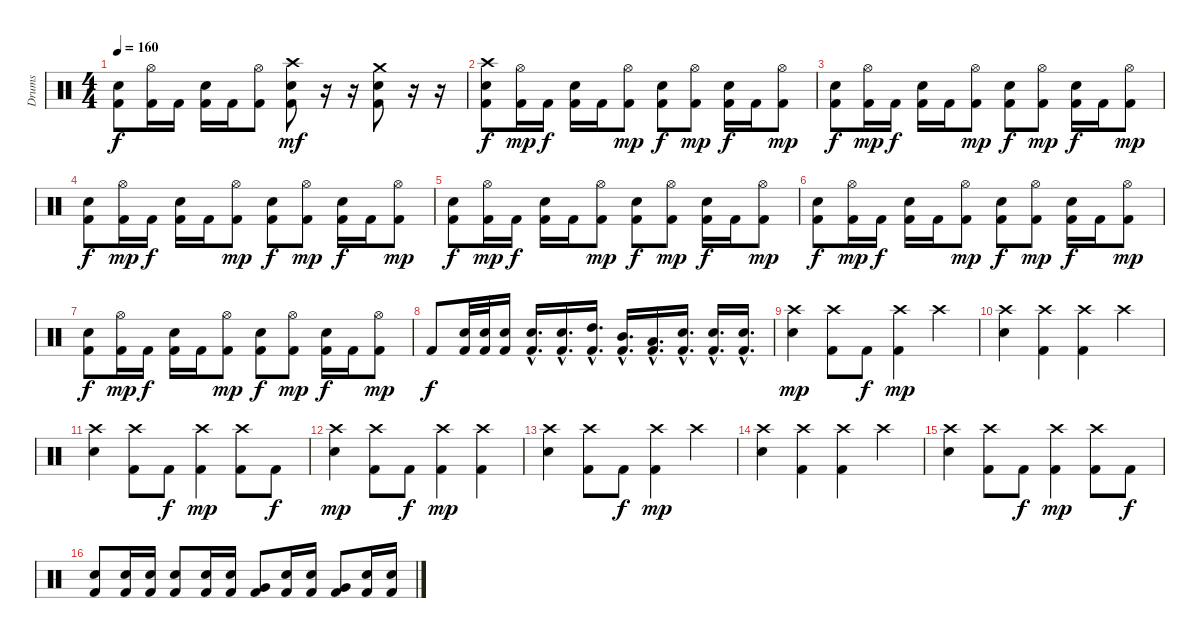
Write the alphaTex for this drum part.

\track ("Drums" "Drums") {instrument percussion}
\staff {score}
\articulation defaults
\ts (4 4)
\tempo 160
\clef neutral
\ks c
("Electric Snare (hit)" "Kick (hit) 2").8{dy f} ("Hi-Hat (open)" "Kick (hit) 2").16 "Kick (hit) 2".16 ("Electric Snare (hit)" "Kick (hit) 2").16 "Kick (hit) 2".16 ("Hi-Hat (open)" "Kick (hit) 2").8 ("Crash high (hit)" "Electric Snare (hit)" "Kick (hit) 2").8{dy mf} r.16 r.16 ("Crash medium (hit)" "Electric Snare (hit)" "Kick (hit) 2").8 r.16 r.16 |
("Crash high (hit)" "Electric Snare (hit)" "Kick (hit) 2").8{dy f} ("Hi-Hat (open)" "Kick (hit) 2").16{dy mp} "Kick (hit) 2".16{dy f} ("Electric Snare (hit)" "Kick (hit) 2").16 "Kick (hit) 2".16 ("Hi-Hat (open)" "Kick (hit) 2").8{dy mp} ("Electric Snare (hit)" "Kick (hit) 2").8{dy f} ("Hi-Hat (open)" "Kick (hit) 2").8{dy mp} ("Electric Snare (hit)" "Kick (hit) 2").16{dy f} "Kick (hit) 2".16 ("Hi-Hat (open)" "Kick (hit) 2").8{dy mp} |
("Electric Snare (hit)" "Kick (hit) 2").8{dy f} ("Hi-Hat (open)" "Kick (hit) 2").16{dy mp} "Kick (hit) 2".16{dy f} ("Electric Snare (hit)" "Kick (hit) 2").16 "Kick (hit) 2".16 ("Hi-Hat (open)" "Kick (hit) 2").8{dy mp} ("Electric Snare (hit)" "Kick (hit) 2").8{dy f} ("Hi-Hat (open)" "Kick (hit) 2").8{dy mp} ("Electric Snare (hit)" "Kick (hit) 2").16{dy f} "Kick (hit) 2".16 ("Hi-Hat (open)" "Kick (hit) 2").8{dy mp} |
("Electric Snare (hit)" "Kick (hit) 2").8{dy f} ("Hi-Hat (open)" "Kick (hit) 2").16{dy mp} "Kick (hit) 2".16{dy f} ("Electric Snare (hit)" "Kick (hit) 2").16 "Kick (hit) 2".16 ("Hi-Hat (open)" "Kick (hit) 2").8{dy mp} ("Electric Snare (hit)" "Kick (hit) 2").8{dy f} ("Hi-Hat (open)" "Kick (hit) 2").8{dy mp} ("Electric Snare (hit)" "Kick (hit) 2").16{dy f} "Kick (hit) 2".16 ("Hi-Hat (open)" "Kick (hit) 2").8{dy mp} |
("Electric Snare (hit)" "Kick (hit) 2").8{dy f} ("Hi-Hat (open)" "Kick (hit) 2").16{dy mp} "Kick (hit) 2".16{dy f} ("Electric Snare (hit)" "Kick (hit) 2").16 "Kick (hit) 2".16 ("Hi-Hat (open)" "Kick (hit) 2").8{dy mp} ("Electric Snare (hit)" "Kick (hit) 2").8{dy f} ("Hi-Hat (open)" "Kick (hit) 2").8{dy mp} ("Electric Snare (hit)" "Kick (hit) 2").16{dy f} "Kick (hit) 2".16 ("Hi-Hat (open)" "Kick (hit) 2").8{dy mp} |
("Electric Snare (hit)" "Kick (hit) 2").8{dy f} ("Hi-Hat (open)" "Kick (hit) 2").16{dy mp} "Kick (hit) 2".16{dy f} ("Electric Snare (hit)" "Kick (hit) 2").16 "Kick (hit) 2".16 ("Hi-Hat (open)" "Kick (hit) 2").8{dy mp} ("Electric Snare (hit)" "Kick (hit) 2").8{dy f} ("Hi-Hat (open)" "Kick (hit) 2").8{dy mp} ("Electric Snare (hit)" "Kick (hit) 2").16{dy f} "Kick (hit) 2".16 ("Hi-Hat (open)" "Kick (hit) 2").8{dy mp} |
("Electric Snare (hit)" "Kick (hit) 2").8{dy f} ("Hi-Hat (open)" "Kick (hit) 2").16{dy mp} "Kick (hit) 2".16{dy f} ("Electric Snare (hit)" "Kick (hit) 2").16 "Kick (hit) 2".16 ("Hi-Hat (open)" "Kick (hit) 2").8{dy mp} ("Electric Snare (hit)" "Kick (hit) 2").8{dy f} ("Hi-Hat (open)" "Kick (hit) 2").8{dy mp} ("Electric Snare (hit)" "Kick (hit) 2").16{dy f} "Kick (hit) 2".16 ("Hi-Hat (open)" "Kick (hit) 2").8{dy mp} |
"Kick (hit) 2".8{dy f} ("Electric Snare (hit)" "Kick (hit) 2").32 ("Electric Snare (hit)" "Kick (hit) 2").32 ("Electric Snare (hit)" "Kick (hit) 2").16 ("Electric Snare (hit)"{hac} "Kick (hit) 2"{hac}).16{d} ("Electric Snare (hit)"{hac} "Kick (hit) 2"{hac}).16{d} ("High Tom (hit)"{hac} "Kick (hit) 2"{hac}).16{d} ("Mid Tom (hit)"{hac} "Kick (hit) 2"{hac}).16{d} ("Low Tom (hit)"{hac} "Kick (hit) 2"{hac}).16{d} ("Electric Snare (hit)"{hac} "Kick (hit) 2"{hac}).16{d} ("Electric Snare (hit)"{hac} "Kick (hit) 2"{hac}).16{d} ("Electric Snare (hit)"{hac} "Kick (hit) 2"{hac}).16{d} |
("Crash high (hit)" "Electric Snare (hit)").4{dy mp} ("Crash high (hit)" "Kick (hit) 2").8 "Kick (hit) 2".8{dy f} ("Crash high (hit)" "Kick (hit) 2").4{dy mp} "Crash high (hit)".4 |
("Crash high (hit)" "Electric Snare (hit)").4 ("Crash high (hit)" "Kick (hit) 2").4 ("Crash high (hit)" "Kick (hit) 2").4 "Crash high (hit)".4 |
("Crash high (hit)" "Electric Snare (hit)").4 ("Crash high (hit)" "Kick (hit) 2").8 "Kick (hit) 2".8{dy f} ("Crash high (hit)" "Kick (hit) 2").4{dy mp} ("Crash high (hit)" "Kick (hit) 2").8 "Kick (hit) 2".8{dy f} |
("Crash high (hit)" "Electric Snare (hit)").4{dy mp} ("Crash high (hit)" "Kick (hit) 2").8 "Kick (hit) 2".8{dy f} ("Crash high (hit)" "Kick (hit) 2").4{dy mp} ("Crash high (hit)" "Kick (hit) 2").4 |
("Crash high (hit)" "Electric Snare (hit)").4 ("Crash high (hit)" "Kick (hit) 2").8 "Kick (hit) 2".8{dy f} ("Crash high (hit)" "Kick (hit) 2").4{dy mp} "Crash high (hit)".4 |
("Crash high (hit)" "Electric Snare (hit)").4 ("Crash high (hit)" "Kick (hit) 2").4 ("Crash high (hit)" "Kick (hit) 2").4 "Crash high (hit)".4 |
("Crash high (hit)" "Electric Snare (hit)").4 ("Crash high (hit)" "Kick (hit) 2").8 "Kick (hit) 2".8{dy f} ("Crash high (hit)" "Kick (hit) 2").4{dy mp} ("Crash high (hit)" "Kick (hit) 2").8 "Kick (hit) 2".8{dy f} |
("Electric Snare (hit)" "Kick (hit) 2").8 ("Electric Snare (hit)" "Kick (hit) 2").16 ("Electric Snare (hit)" "Kick (hit) 2").16 ("Electric Snare (hit)" "Kick (hit) 2").8 ("Electric Snare (hit)" "Kick (hit) 2").16 ("Electric Snare (hit)" "Kick (hit) 2").16 ("Very Low Tom (hit)" "Kick (hit) 2").8 ("Electric Snare (hit)" "Kick (hit) 2").16 ("Electric Snare (hit)" "Kick (hit) 2").16 ("Very Low Tom (hit)" "Kick (hit) 2").8 ("Electric Snare (hit)" "Kick (hit) 2").16 ("Electric Snare (hit)" "Kick (hit) 2").16
